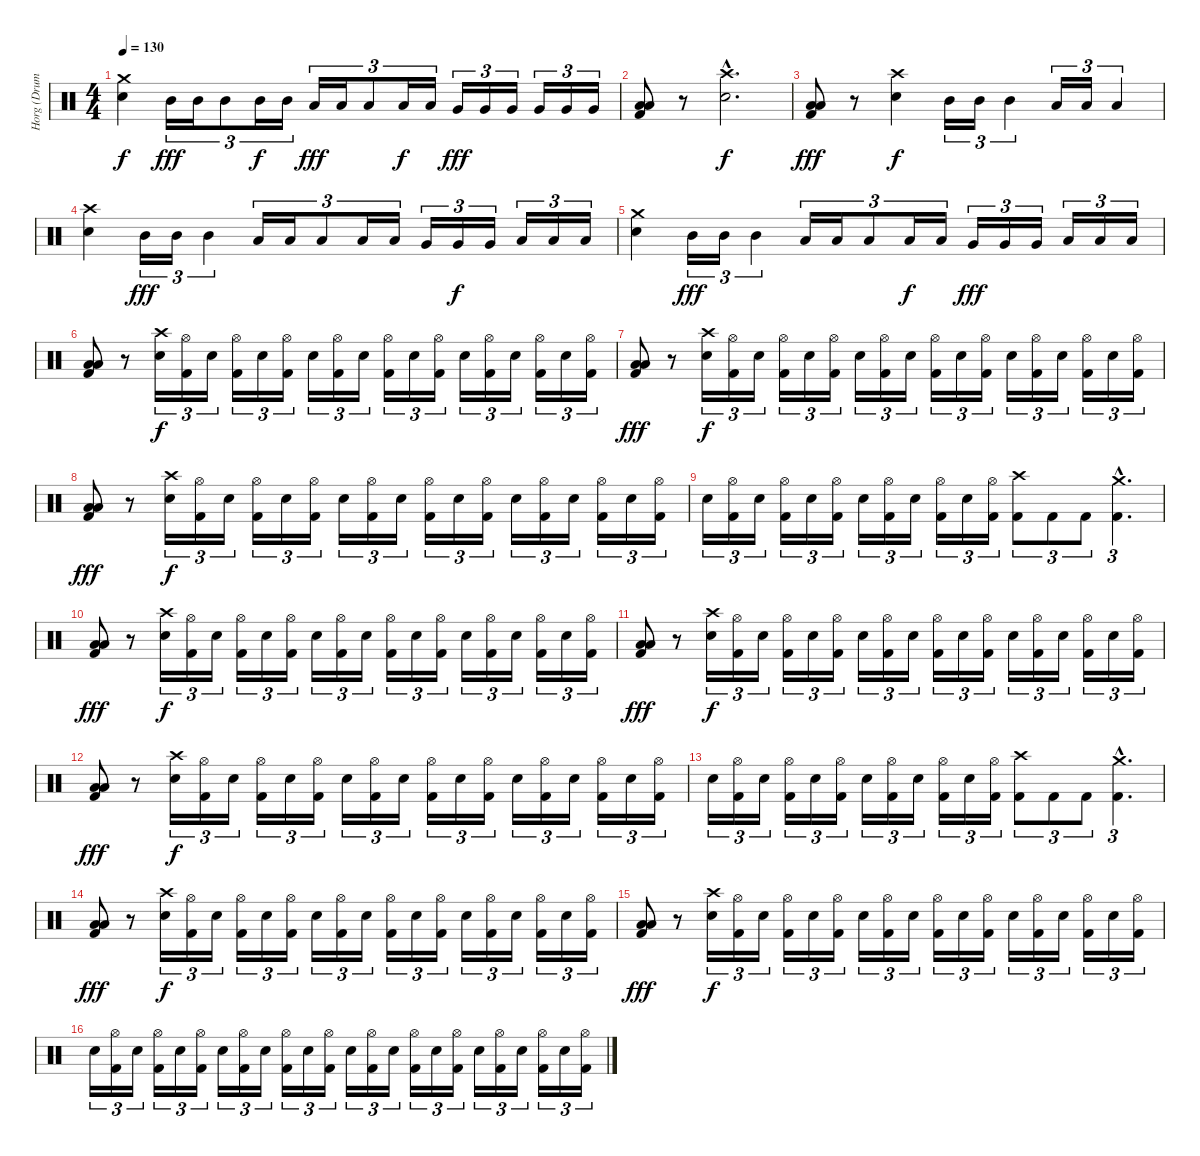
\track ("Horg (Drums)" "Horg (Drum") {instrument percussion}
\staff {score}
\articulation defaults
\ts (4 4)
\tempo 130
\clef neutral
\ks c
("Crash medium (hit)" "Electric Snare (hit)").4{dy f} "Mid Tom (hit)".16{tu (3 2) dy fff} "Mid Tom (hit)".16{tu (3 2)} "Mid Tom (hit)".8{tu (3 2)} "Mid Tom (hit)".16{tu (3 2) dy f} "Mid Tom (hit)".16{tu (3 2)} "Low Tom (hit)".16{tu (3 2) dy fff} "Low Tom (hit)".16{tu (3 2)} "Low Tom (hit)".8{tu (3 2)} "Low Tom (hit)".16{tu (3 2) dy f} "Low Tom (hit)".16{tu (3 2)} "Very Low Tom (hit)".16{tu (3 2) dy fff} "Very Low Tom (hit)".16{tu (3 2)} "Very Low Tom (hit)".16{tu (3 2)} "Very Low Tom (hit)".16{tu (3 2)} "Very Low Tom (hit)".16{tu (3 2)} "Very Low Tom (hit)".16{tu (3 2)} |
("Low Floor Tom (hit)" "Low Floor Tom (hit)" "Kick (hit) 2").8 r.8 ("Crash high (hit)"{hac} "Electric Snare (hit)"{hac}).2{d dy f} |
("Low Floor Tom (hit)" "Low Floor Tom (hit)" "Kick (hit) 2").8{dy fff} r.8 ("Crash high (hit)" "Electric Snare (hit)").4{dy f} "Mid Tom (hit)".16{tu (3 2)} "Mid Tom (hit)".16{tu (3 2)} "Mid Tom (hit)".4{tu (3 2)} "Low Tom (hit)".16{tu (3 2)} "Low Tom (hit)".16{tu (3 2)} "Low Tom (hit)".4{tu (3 2)} |
("Crash high (hit)" "Electric Snare (hit)").4 "Mid Tom (hit)".16{tu (3 2) dy fff} "Mid Tom (hit)".16{tu (3 2)} "Mid Tom (hit)".4{tu (3 2)} "Low Tom (hit)".16{tu (3 2)} "Low Tom (hit)".16{tu (3 2)} "Low Tom (hit)".8{tu (3 2)} "Low Tom (hit)".16{tu (3 2)} "Low Tom (hit)".16{tu (3 2)} "Very Low Tom (hit)".16{tu (3 2)} "Very Low Tom (hit)".16{tu (3 2) dy f} "Very Low Tom (hit)".16{tu (3 2)} "Low Floor Tom (hit)".16{tu (3 2)} "Low Floor Tom (hit)".16{tu (3 2)} "Low Floor Tom (hit)".16{tu (3 2)} |
("Crash medium (hit)" "Electric Snare (hit)").4 "Mid Tom (hit)".16{tu (3 2) dy fff} "Mid Tom (hit)".16{tu (3 2)} "Mid Tom (hit)".4{tu (3 2)} "Low Tom (hit)".16{tu (3 2)} "Low Tom (hit)".16{tu (3 2)} "Low Tom (hit)".8{tu (3 2)} "Low Tom (hit)".16{tu (3 2) dy f} "Low Tom (hit)".16{tu (3 2)} "Very Low Tom (hit)".16{tu (3 2) dy fff} "Very Low Tom (hit)".16{tu (3 2)} "Very Low Tom (hit)".16{tu (3 2)} "Low Floor Tom (hit)".16{tu (3 2)} "Low Floor Tom (hit)".16{tu (3 2)} "Low Floor Tom (hit)".16{tu (3 2)} |
("Low Floor Tom (hit)" "Low Floor Tom (hit)" "Kick (hit) 2").8 r.8 ("Crash high (hit)" "Electric Snare (hit)").16{tu (3 2) dy f} ("Hi-Hat (open)" "Kick (hit) 2").16{tu (3 2)} "Electric Snare (hit)".16{tu (3 2)} ("Hi-Hat (open)" "Kick (hit) 2").16{tu (3 2)} "Electric Snare (hit)".16{tu (3 2)} ("Hi-Hat (open)" "Kick (hit) 2").16{tu (3 2)} "Electric Snare (hit)".16{tu (3 2)} ("Hi-Hat (open)" "Kick (hit) 2").16{tu (3 2)} "Electric Snare (hit)".16{tu (3 2)} ("Hi-Hat (open)" "Kick (hit) 2").16{tu (3 2)} "Electric Snare (hit)".16{tu (3 2)} ("Hi-Hat (open)" "Kick (hit) 2").16{tu (3 2)} "Electric Snare (hit)".16{tu (3 2)} ("Hi-Hat (open)" "Kick (hit) 2").16{tu (3 2)} "Electric Snare (hit)".16{tu (3 2)} ("Hi-Hat (open)" "Kick (hit) 2").16{tu (3 2)} "Electric Snare (hit)".16{tu (3 2)} ("Hi-Hat (open)" "Kick (hit) 2").16{tu (3 2)} |
("Low Floor Tom (hit)" "Low Floor Tom (hit)" "Kick (hit) 2").8{dy fff} r.8 ("Crash high (hit)" "Electric Snare (hit)").16{tu (3 2) dy f} ("Hi-Hat (open)" "Kick (hit) 2").16{tu (3 2)} "Electric Snare (hit)".16{tu (3 2)} ("Hi-Hat (open)" "Kick (hit) 2").16{tu (3 2)} "Electric Snare (hit)".16{tu (3 2)} ("Hi-Hat (open)" "Kick (hit) 2").16{tu (3 2)} "Electric Snare (hit)".16{tu (3 2)} ("Hi-Hat (open)" "Kick (hit) 2").16{tu (3 2)} "Electric Snare (hit)".16{tu (3 2)} ("Hi-Hat (open)" "Kick (hit) 2").16{tu (3 2)} "Electric Snare (hit)".16{tu (3 2)} ("Hi-Hat (open)" "Kick (hit) 2").16{tu (3 2)} "Electric Snare (hit)".16{tu (3 2)} ("Hi-Hat (open)" "Kick (hit) 2").16{tu (3 2)} "Electric Snare (hit)".16{tu (3 2)} ("Hi-Hat (open)" "Kick (hit) 2").16{tu (3 2)} "Electric Snare (hit)".16{tu (3 2)} ("Hi-Hat (open)" "Kick (hit) 2").16{tu (3 2)} |
("Low Floor Tom (hit)" "Low Floor Tom (hit)" "Kick (hit) 2").8{dy fff} r.8 ("Crash high (hit)" "Electric Snare (hit)").16{tu (3 2) dy f} ("Hi-Hat (open)" "Kick (hit) 2").16{tu (3 2)} "Electric Snare (hit)".16{tu (3 2)} ("Hi-Hat (open)" "Kick (hit) 2").16{tu (3 2)} "Electric Snare (hit)".16{tu (3 2)} ("Hi-Hat (open)" "Kick (hit) 2").16{tu (3 2)} "Electric Snare (hit)".16{tu (3 2)} ("Hi-Hat (open)" "Kick (hit) 2").16{tu (3 2)} "Electric Snare (hit)".16{tu (3 2)} ("Hi-Hat (open)" "Kick (hit) 2").16{tu (3 2)} "Electric Snare (hit)".16{tu (3 2)} ("Hi-Hat (open)" "Kick (hit) 2").16{tu (3 2)} "Electric Snare (hit)".16{tu (3 2)} ("Hi-Hat (open)" "Kick (hit) 2").16{tu (3 2)} "Electric Snare (hit)".16{tu (3 2)} ("Hi-Hat (open)" "Kick (hit) 2").16{tu (3 2)} "Electric Snare (hit)".16{tu (3 2)} ("Hi-Hat (open)" "Kick (hit) 2").16{tu (3 2)} |
"Electric Snare (hit)".16{tu (3 2)} ("Hi-Hat (open)" "Kick (hit) 2").16{tu (3 2)} "Electric Snare (hit)".16{tu (3 2)} ("Hi-Hat (open)" "Kick (hit) 2").16{tu (3 2)} "Electric Snare (hit)".16{tu (3 2)} ("Hi-Hat (open)" "Kick (hit) 2").16{tu (3 2)} "Electric Snare (hit)".16{tu (3 2)} ("Hi-Hat (open)" "Kick (hit) 2").16{tu (3 2)} "Electric Snare (hit)".16{tu (3 2)} ("Hi-Hat (open)" "Kick (hit) 2").16{tu (3 2)} "Electric Snare (hit)".16{tu (3 2)} ("Hi-Hat (open)" "Kick (hit) 2").16{tu (3 2)} ("Crash high (hit)" "Kick (hit) 2").8{tu (3 2)} "Kick (hit) 2".8{tu (3 2)} "Kick (hit) 2".8{tu (3 2)} ("Crash medium (hit)"{hac} "Kick (hit) 2"{hac}).4{d tu (3 2)} |
("Low Floor Tom (hit)" "Low Floor Tom (hit)" "Kick (hit) 2").8{dy fff} r.8 ("Crash high (hit)" "Electric Snare (hit)").16{tu (3 2) dy f} ("Hi-Hat (open)" "Kick (hit) 2").16{tu (3 2)} "Electric Snare (hit)".16{tu (3 2)} ("Hi-Hat (open)" "Kick (hit) 2").16{tu (3 2)} "Electric Snare (hit)".16{tu (3 2)} ("Hi-Hat (open)" "Kick (hit) 2").16{tu (3 2)} "Electric Snare (hit)".16{tu (3 2)} ("Hi-Hat (open)" "Kick (hit) 2").16{tu (3 2)} "Electric Snare (hit)".16{tu (3 2)} ("Hi-Hat (open)" "Kick (hit) 2").16{tu (3 2)} "Electric Snare (hit)".16{tu (3 2)} ("Hi-Hat (open)" "Kick (hit) 2").16{tu (3 2)} "Electric Snare (hit)".16{tu (3 2)} ("Hi-Hat (open)" "Kick (hit) 2").16{tu (3 2)} "Electric Snare (hit)".16{tu (3 2)} ("Hi-Hat (open)" "Kick (hit) 2").16{tu (3 2)} "Electric Snare (hit)".16{tu (3 2)} ("Hi-Hat (open)" "Kick (hit) 2").16{tu (3 2)} |
("Low Floor Tom (hit)" "Low Floor Tom (hit)" "Kick (hit) 2").8{dy fff} r.8 ("Crash high (hit)" "Electric Snare (hit)").16{tu (3 2) dy f} ("Hi-Hat (open)" "Kick (hit) 2").16{tu (3 2)} "Electric Snare (hit)".16{tu (3 2)} ("Hi-Hat (open)" "Kick (hit) 2").16{tu (3 2)} "Electric Snare (hit)".16{tu (3 2)} ("Hi-Hat (open)" "Kick (hit) 2").16{tu (3 2)} "Electric Snare (hit)".16{tu (3 2)} ("Hi-Hat (open)" "Kick (hit) 2").16{tu (3 2)} "Electric Snare (hit)".16{tu (3 2)} ("Hi-Hat (open)" "Kick (hit) 2").16{tu (3 2)} "Electric Snare (hit)".16{tu (3 2)} ("Hi-Hat (open)" "Kick (hit) 2").16{tu (3 2)} "Electric Snare (hit)".16{tu (3 2)} ("Hi-Hat (open)" "Kick (hit) 2").16{tu (3 2)} "Electric Snare (hit)".16{tu (3 2)} ("Hi-Hat (open)" "Kick (hit) 2").16{tu (3 2)} "Electric Snare (hit)".16{tu (3 2)} ("Hi-Hat (open)" "Kick (hit) 2").16{tu (3 2)} |
("Low Floor Tom (hit)" "Low Floor Tom (hit)" "Kick (hit) 2").8{dy fff} r.8 ("Crash high (hit)" "Electric Snare (hit)").16{tu (3 2) dy f} ("Hi-Hat (open)" "Kick (hit) 2").16{tu (3 2)} "Electric Snare (hit)".16{tu (3 2)} ("Hi-Hat (open)" "Kick (hit) 2").16{tu (3 2)} "Electric Snare (hit)".16{tu (3 2)} ("Hi-Hat (open)" "Kick (hit) 2").16{tu (3 2)} "Electric Snare (hit)".16{tu (3 2)} ("Hi-Hat (open)" "Kick (hit) 2").16{tu (3 2)} "Electric Snare (hit)".16{tu (3 2)} ("Hi-Hat (open)" "Kick (hit) 2").16{tu (3 2)} "Electric Snare (hit)".16{tu (3 2)} ("Hi-Hat (open)" "Kick (hit) 2").16{tu (3 2)} "Electric Snare (hit)".16{tu (3 2)} ("Hi-Hat (open)" "Kick (hit) 2").16{tu (3 2)} "Electric Snare (hit)".16{tu (3 2)} ("Hi-Hat (open)" "Kick (hit) 2").16{tu (3 2)} "Electric Snare (hit)".16{tu (3 2)} ("Hi-Hat (open)" "Kick (hit) 2").16{tu (3 2)} |
"Electric Snare (hit)".16{tu (3 2)} ("Hi-Hat (open)" "Kick (hit) 2").16{tu (3 2)} "Electric Snare (hit)".16{tu (3 2)} ("Hi-Hat (open)" "Kick (hit) 2").16{tu (3 2)} "Electric Snare (hit)".16{tu (3 2)} ("Hi-Hat (open)" "Kick (hit) 2").16{tu (3 2)} "Electric Snare (hit)".16{tu (3 2)} ("Hi-Hat (open)" "Kick (hit) 2").16{tu (3 2)} "Electric Snare (hit)".16{tu (3 2)} ("Hi-Hat (open)" "Kick (hit) 2").16{tu (3 2)} "Electric Snare (hit)".16{tu (3 2)} ("Hi-Hat (open)" "Kick (hit) 2").16{tu (3 2)} ("Crash high (hit)" "Kick (hit) 2").8{tu (3 2)} "Kick (hit) 2".8{tu (3 2)} "Kick (hit) 2".8{tu (3 2)} ("Crash medium (hit)"{hac} "Kick (hit) 2"{hac}).4{d tu (3 2)} |
("Low Floor Tom (hit)" "Low Floor Tom (hit)" "Kick (hit) 2").8{dy fff} r.8 ("Crash high (hit)" "Electric Snare (hit)").16{tu (3 2) dy f} ("Hi-Hat (open)" "Kick (hit) 2").16{tu (3 2)} "Electric Snare (hit)".16{tu (3 2)} ("Hi-Hat (open)" "Kick (hit) 2").16{tu (3 2)} "Electric Snare (hit)".16{tu (3 2)} ("Hi-Hat (open)" "Kick (hit) 2").16{tu (3 2)} "Electric Snare (hit)".16{tu (3 2)} ("Hi-Hat (open)" "Kick (hit) 2").16{tu (3 2)} "Electric Snare (hit)".16{tu (3 2)} ("Hi-Hat (open)" "Kick (hit) 2").16{tu (3 2)} "Electric Snare (hit)".16{tu (3 2)} ("Hi-Hat (open)" "Kick (hit) 2").16{tu (3 2)} "Electric Snare (hit)".16{tu (3 2)} ("Hi-Hat (open)" "Kick (hit) 2").16{tu (3 2)} "Electric Snare (hit)".16{tu (3 2)} ("Hi-Hat (open)" "Kick (hit) 2").16{tu (3 2)} "Electric Snare (hit)".16{tu (3 2)} ("Hi-Hat (open)" "Kick (hit) 2").16{tu (3 2)} |
("Low Floor Tom (hit)" "Low Floor Tom (hit)" "Kick (hit) 2").8{dy fff} r.8 ("Crash high (hit)" "Electric Snare (hit)").16{tu (3 2) dy f} ("Hi-Hat (open)" "Kick (hit) 2").16{tu (3 2)} "Electric Snare (hit)".16{tu (3 2)} ("Hi-Hat (open)" "Kick (hit) 2").16{tu (3 2)} "Electric Snare (hit)".16{tu (3 2)} ("Hi-Hat (open)" "Kick (hit) 2").16{tu (3 2)} "Electric Snare (hit)".16{tu (3 2)} ("Hi-Hat (open)" "Kick (hit) 2").16{tu (3 2)} "Electric Snare (hit)".16{tu (3 2)} ("Hi-Hat (open)" "Kick (hit) 2").16{tu (3 2)} "Electric Snare (hit)".16{tu (3 2)} ("Hi-Hat (open)" "Kick (hit) 2").16{tu (3 2)} "Electric Snare (hit)".16{tu (3 2)} ("Hi-Hat (open)" "Kick (hit) 2").16{tu (3 2)} "Electric Snare (hit)".16{tu (3 2)} ("Hi-Hat (open)" "Kick (hit) 2").16{tu (3 2)} "Electric Snare (hit)".16{tu (3 2)} ("Hi-Hat (open)" "Kick (hit) 2").16{tu (3 2)} |
"Electric Snare (hit)".16{tu (3 2)} ("Hi-Hat (open)" "Kick (hit) 2").16{tu (3 2)} "Electric Snare (hit)".16{tu (3 2)} ("Hi-Hat (open)" "Kick (hit) 2").16{tu (3 2)} "Electric Snare (hit)".16{tu (3 2)} ("Hi-Hat (open)" "Kick (hit) 2").16{tu (3 2)} "Electric Snare (hit)".16{tu (3 2)} ("Hi-Hat (open)" "Kick (hit) 2").16{tu (3 2)} "Electric Snare (hit)".16{tu (3 2)} ("Hi-Hat (open)" "Kick (hit) 2").16{tu (3 2)} "Electric Snare (hit)".16{tu (3 2)} ("Hi-Hat (open)" "Kick (hit) 2").16{tu (3 2)} "Electric Snare (hit)".16{tu (3 2)} ("Hi-Hat (open)" "Kick (hit) 2").16{tu (3 2)} "Electric Snare (hit)".16{tu (3 2)} ("Hi-Hat (open)" "Kick (hit) 2").16{tu (3 2)} "Electric Snare (hit)".16{tu (3 2)} ("Hi-Hat (open)" "Kick (hit) 2").16{tu (3 2)} "Electric Snare (hit)".16{tu (3 2)} ("Hi-Hat (open)" "Kick (hit) 2").16{tu (3 2)} "Electric Snare (hit)".16{tu (3 2)} ("Hi-Hat (open)" "Kick (hit) 2").16{tu (3 2)} "Electric Snare (hit)".16{tu (3 2)} ("Hi-Hat (open)" "Kick (hit) 2").16{tu (3 2)}
